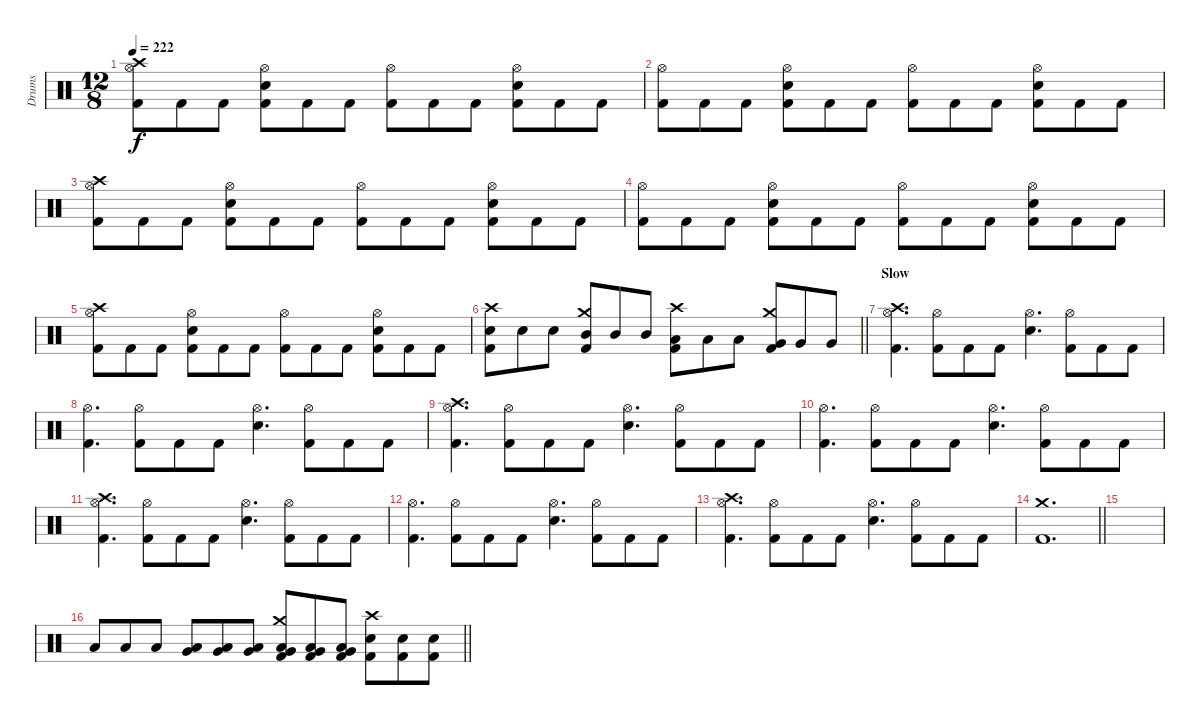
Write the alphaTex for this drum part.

\track ("Drums" "Drums") {instrument percussion}
\staff {score}
\articulation defaults
\ts (12 8)
\tempo 222
\clef neutral
\ks c
("Crash high (hit)" "Hi-Hat (open)" "Kick (hit) 2").8{dy f} "Kick (hit) 2".8 "Kick (hit) 2".8 ("Hi-Hat (open)" "Snare (hit) 2" "Kick (hit) 2").8 "Kick (hit) 2".8 "Kick (hit) 2".8 ("Hi-Hat (open)" "Kick (hit) 2").8 "Kick (hit) 2".8 "Kick (hit) 2".8 ("Hi-Hat (open)" "Snare (hit) 2" "Kick (hit) 2").8 "Kick (hit) 2".8 "Kick (hit) 2".8 |
("Hi-Hat (open)" "Kick (hit) 2").8 "Kick (hit) 2".8 "Kick (hit) 2".8 ("Hi-Hat (open)" "Snare (hit) 2" "Kick (hit) 2").8 "Kick (hit) 2".8 "Kick (hit) 2".8 ("Hi-Hat (open)" "Kick (hit) 2").8 "Kick (hit) 2".8 "Kick (hit) 2".8 ("Hi-Hat (open)" "Snare (hit) 2" "Kick (hit) 2").8 "Kick (hit) 2".8 "Kick (hit) 2".8 |
("Crash high (hit)" "Hi-Hat (open)" "Kick (hit) 2").8 "Kick (hit) 2".8 "Kick (hit) 2".8 ("Hi-Hat (open)" "Snare (hit) 2" "Kick (hit) 2").8 "Kick (hit) 2".8 "Kick (hit) 2".8 ("Hi-Hat (open)" "Kick (hit) 2").8 "Kick (hit) 2".8 "Kick (hit) 2".8 ("Hi-Hat (open)" "Snare (hit) 2" "Kick (hit) 2").8 "Kick (hit) 2".8 "Kick (hit) 2".8 |
("Hi-Hat (open)" "Kick (hit) 2").8 "Kick (hit) 2".8 "Kick (hit) 2".8 ("Hi-Hat (open)" "Snare (hit) 2" "Kick (hit) 2").8 "Kick (hit) 2".8 "Kick (hit) 2".8 ("Hi-Hat (open)" "Kick (hit) 2").8 "Kick (hit) 2".8 "Kick (hit) 2".8 ("Hi-Hat (open)" "Snare (hit) 2" "Kick (hit) 2").8 "Kick (hit) 2".8 "Kick (hit) 2".8 |
("Crash high (hit)" "Hi-Hat (open)" "Kick (hit) 2").8 "Kick (hit) 2".8 "Kick (hit) 2".8 ("Hi-Hat (open)" "Snare (hit) 2" "Kick (hit) 2").8 "Kick (hit) 2".8 "Kick (hit) 2".8 ("Hi-Hat (open)" "Kick (hit) 2").8 "Kick (hit) 2".8 "Kick (hit) 2".8 ("Hi-Hat (open)" "Snare (hit) 2" "Kick (hit) 2").8 "Kick (hit) 2".8 "Kick (hit) 2".8 |
\barLineRight lightlight
("Crash high (hit)" "Snare (hit) 2" "Kick (hit) 2").8 "Snare (hit) 2".8 "Snare (hit) 2".8 ("Crash medium (hit)" "Mid Tom (hit)" "Kick (hit) 2").8 "Mid Tom (hit)".8 "Mid Tom (hit)".8 ("Crash high (hit)" "Low Tom (hit)" "Kick (hit) 2").8 "Low Tom (hit)".8 "Low Tom (hit)".8 ("Crash medium (hit)" "Very Low Tom (hit)" "Kick (hit) 2").8 "Very Low Tom (hit)".8 "Very Low Tom (hit)".8 |
\section ("" "Slow")
("Crash high (hit)" "Hi-Hat (open)" "Kick (hit) 2").4{d} ("Hi-Hat (open)" "Kick (hit) 2").8 "Kick (hit) 2".8 "Kick (hit) 2".8 ("Hi-Hat (open)" "Snare (hit) 2").4{d} ("Hi-Hat (open)" "Kick (hit) 2").8 "Kick (hit) 2".8 "Kick (hit) 2".8 |
("Hi-Hat (open)" "Kick (hit) 2").4{d} ("Hi-Hat (open)" "Kick (hit) 2").8 "Kick (hit) 2".8 "Kick (hit) 2".8 ("Hi-Hat (open)" "Snare (hit) 2").4{d} ("Hi-Hat (open)" "Kick (hit) 2").8 "Kick (hit) 2".8 "Kick (hit) 2".8 |
("Crash high (hit)" "Hi-Hat (open)" "Kick (hit) 2").4{d} ("Hi-Hat (open)" "Kick (hit) 2").8 "Kick (hit) 2".8 "Kick (hit) 2".8 ("Hi-Hat (open)" "Snare (hit) 2").4{d} ("Hi-Hat (open)" "Kick (hit) 2").8 "Kick (hit) 2".8 "Kick (hit) 2".8 |
("Hi-Hat (open)" "Kick (hit) 2").4{d} ("Hi-Hat (open)" "Kick (hit) 2").8 "Kick (hit) 2".8 "Kick (hit) 2".8 ("Hi-Hat (open)" "Snare (hit) 2").4{d} ("Hi-Hat (open)" "Kick (hit) 2").8 "Kick (hit) 2".8 "Kick (hit) 2".8 |
("Crash high (hit)" "Hi-Hat (open)" "Kick (hit) 2").4{d} ("Hi-Hat (open)" "Kick (hit) 2").8 "Kick (hit) 2".8 "Kick (hit) 2".8 ("Hi-Hat (open)" "Snare (hit) 2").4{d} ("Hi-Hat (open)" "Kick (hit) 2").8 "Kick (hit) 2".8 "Kick (hit) 2".8 |
("Hi-Hat (open)" "Kick (hit) 2").4{d} ("Hi-Hat (open)" "Kick (hit) 2").8 "Kick (hit) 2".8 "Kick (hit) 2".8 ("Hi-Hat (open)" "Snare (hit) 2").4{d} ("Hi-Hat (open)" "Kick (hit) 2").8 "Kick (hit) 2".8 "Kick (hit) 2".8 |
("Crash high (hit)" "Hi-Hat (open)" "Kick (hit) 2").4{d} ("Hi-Hat (open)" "Kick (hit) 2").8 "Kick (hit) 2".8 "Kick (hit) 2".8 ("Hi-Hat (open)" "Snare (hit) 2").4{d} ("Hi-Hat (open)" "Kick (hit) 2").8 "Kick (hit) 2".8 "Kick (hit) 2".8 |
\barLineRight lightlight
("Crash medium (hit)" "Kick (hit) 2").1{d} |
|
\barLineRight lightlight "Low Floor Tom (hit)".8 "Low Floor Tom (hit)".8 "Low Floor Tom (hit)".8
("Very Low Tom (hit)" "Low Floor Tom (hit)").8 ("Very Low Tom (hit)" "Low Floor Tom (hit)").8 ("Very Low Tom (hit)" "Low Floor Tom (hit)").8 ("Crash medium (hit)" "Very Low Tom (hit)" "Low Floor Tom (hit)" "Kick (hit) 2").8 ("Very Low Tom (hit)" "Low Floor Tom (hit)" "Kick (hit) 2").8 ("Very Low Tom (hit)" "Low Floor Tom (hit)" "Kick (hit) 2").8 ("Crash high (hit)" "Snare (hit) 2" "Kick (hit) 2").8 ("Snare (hit) 2" "Kick (hit) 2").8 ("Snare (hit) 2" "Kick (hit) 2").8
